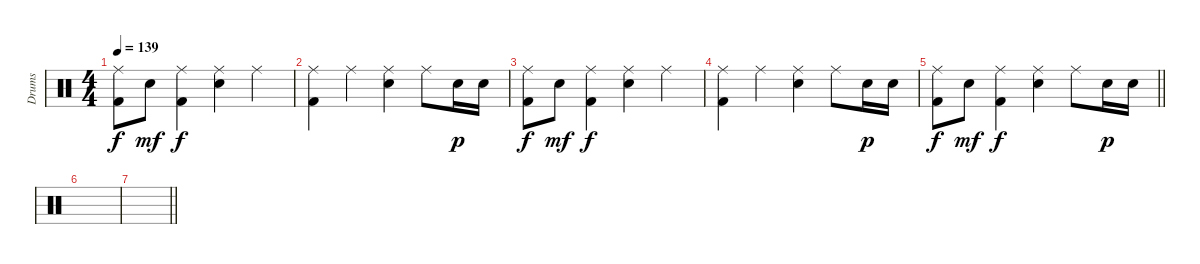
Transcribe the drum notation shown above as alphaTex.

\track ("Drums" "Drums") {instrument percussion}
\staff {score}
\articulation defaults
\ts (4 4)
\tempo 139
\clef neutral
\ks c
("Ride (middle)" "Kick (hit) 2").8{dy f} "Electric Snare (hit)".8{dy mf} ("Ride (middle)" "Kick (hit) 2").4{dy f} ("Ride (middle)" "Electric Snare (hit)").4 "Ride (middle)".4 |
("Ride (middle)" "Kick (hit) 2").4 "Ride (middle)".4 ("Ride (middle)" "Electric Snare (hit)").4 "Ride (middle)".8 "Electric Snare (hit)".16{dy p} "Electric Snare (hit)".16 |
("Ride (middle)" "Kick (hit) 2").8{dy f} "Electric Snare (hit)".8{dy mf} ("Ride (middle)" "Kick (hit) 2").4{dy f} ("Ride (middle)" "Electric Snare (hit)").4 "Ride (middle)".4 |
("Ride (middle)" "Kick (hit) 2").4 "Ride (middle)".4 ("Ride (middle)" "Electric Snare (hit)").4 "Ride (middle)".8 "Electric Snare (hit)".16{dy p} "Electric Snare (hit)".16 |
\barLineRight lightlight
("Ride (middle)" "Kick (hit) 2").8{dy f} "Electric Snare (hit)".8{dy mf} ("Ride (middle)" "Kick (hit) 2").4{dy f} ("Ride (middle)" "Electric Snare (hit)").4 "Ride (middle)".8 "Electric Snare (hit)".16{dy p} "Electric Snare (hit)".16 |
|
\barLineRight lightlight
